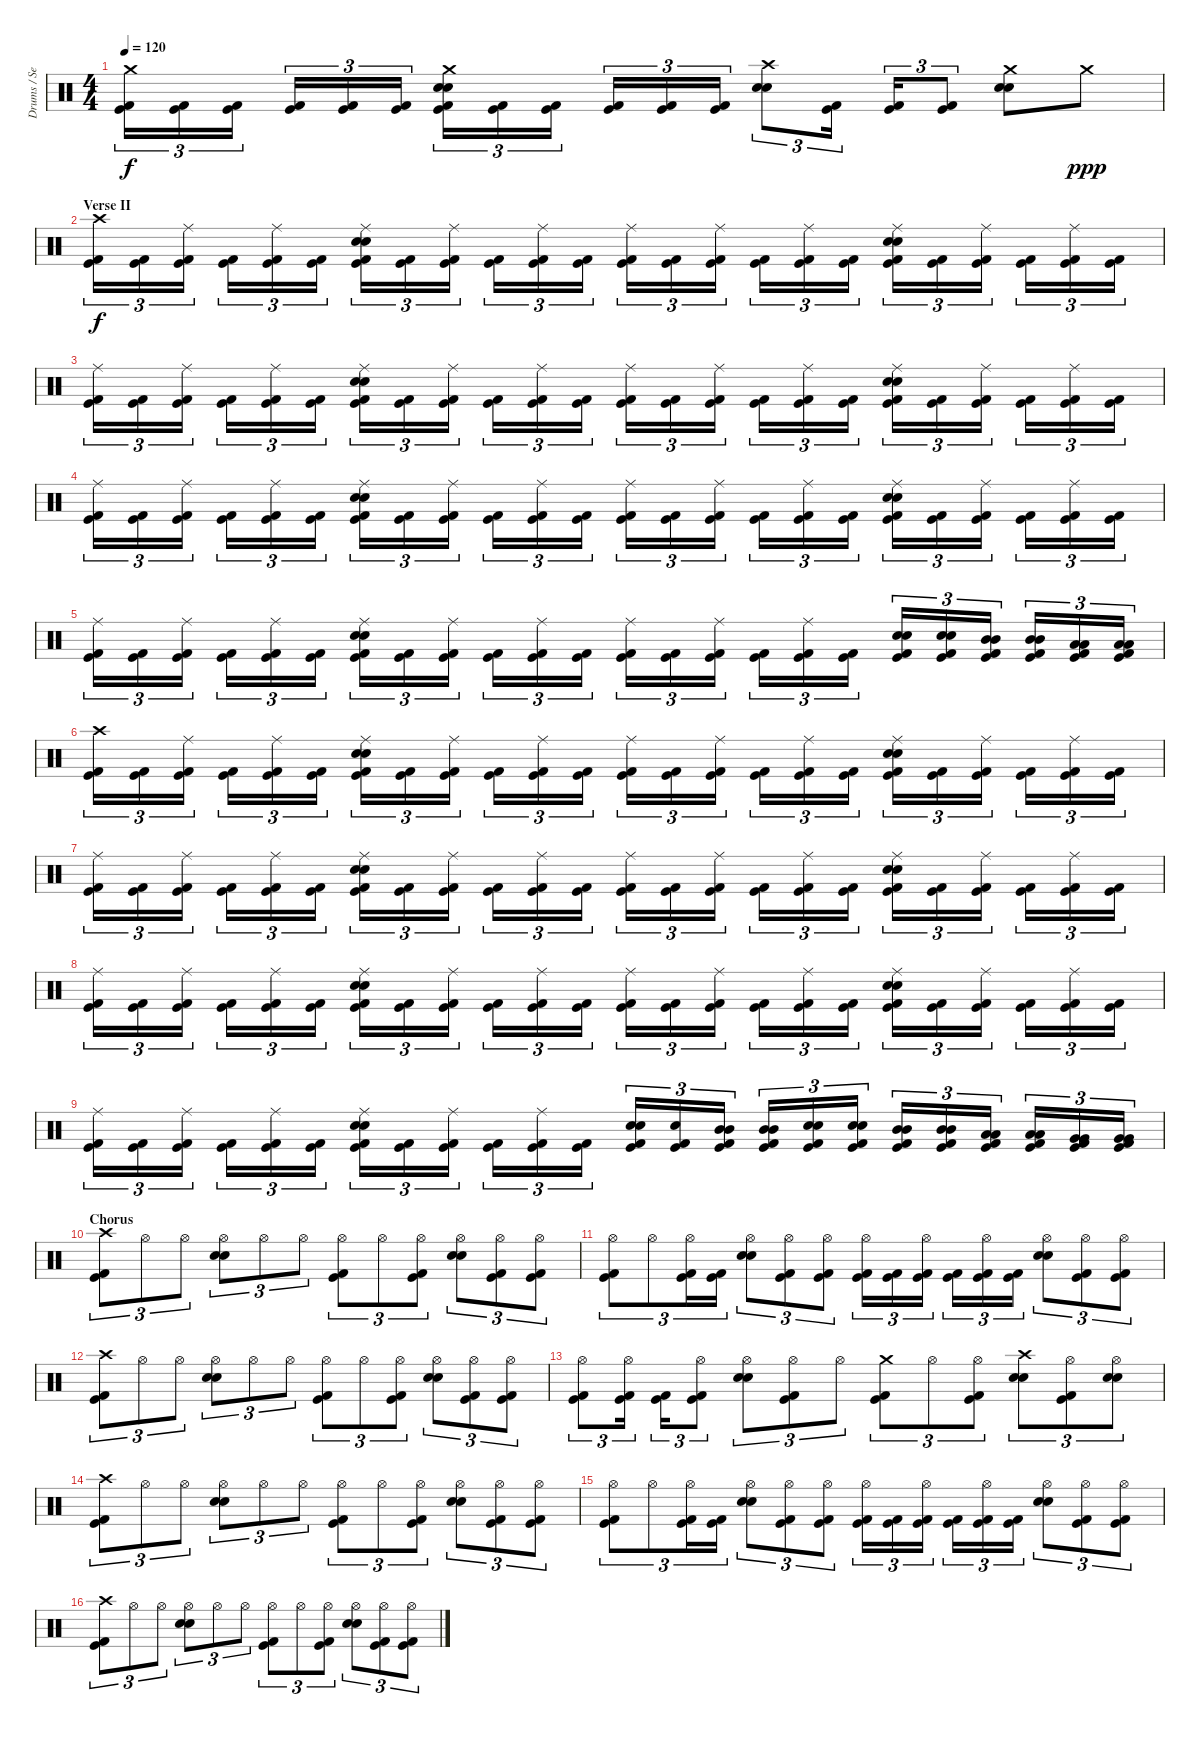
\track ("Drums / Sean" "Drums / Se") {instrument percussion}
\staff {score}
\articulation defaults
\ts (4 4)
\tempo 120
\clef neutral
\ks c
("Crash medium (hit)" "Kick (hit)" "Kick (hit) 2").16{tu (3 2) dy f} ("Kick (hit)" "Kick (hit) 2").16{tu (3 2)} ("Kick (hit)" "Kick (hit) 2").16{tu (3 2)} ("Kick (hit)" "Kick (hit) 2").16{tu (3 2)} ("Kick (hit)" "Kick (hit) 2").16{tu (3 2)} ("Kick (hit)" "Kick (hit) 2").16{tu (3 2)} ("Crash medium (hit)" "Electric Snare (hit)" "Snare (hit) 2" "Kick (hit)" "Kick (hit) 2").16{tu (3 2)} ("Kick (hit)" "Kick (hit) 2").16{tu (3 2)} ("Kick (hit)" "Kick (hit) 2").16{tu (3 2)} ("Kick (hit)" "Kick (hit) 2").16{tu (3 2)} ("Kick (hit)" "Kick (hit) 2").16{tu (3 2)} ("Kick (hit)" "Kick (hit) 2").16{tu (3 2)} ("Crash high (hit)" "Electric Snare (hit)" "Snare (hit) 2").8{tu (3 2)} ("Kick (hit)" "Kick (hit) 2").16{tu (3 2)} ("Kick (hit)" "Kick (hit) 2").16{tu (3 2)} ("Kick (hit)" "Kick (hit) 2").8{tu (3 2)} ("Crash medium (hit)" "Electric Snare (hit)" "Snare (hit) 2").8 "Crash medium (hit)".8{dy ppp} |
\section ("" "Verse II")
("Crash high (hit)" "Kick (hit)" "Kick (hit) 2").16{tu (3 2) dy f} ("Kick (hit)" "Kick (hit) 2").16{tu (3 2)} ("Ride (middle)" "Kick (hit)" "Kick (hit) 2").16{tu (3 2)} ("Kick (hit)" "Kick (hit) 2").16{tu (3 2)} ("Ride (middle)" "Kick (hit)" "Kick (hit) 2").16{tu (3 2)} ("Kick (hit)" "Kick (hit) 2").16{tu (3 2)} ("Ride (middle)" "Electric Snare (hit)" "Snare (hit) 2" "Kick (hit)" "Kick (hit) 2").16{tu (3 2)} ("Kick (hit)" "Kick (hit) 2").16{tu (3 2)} ("Ride (middle)" "Kick (hit)" "Kick (hit) 2").16{tu (3 2)} ("Kick (hit)" "Kick (hit) 2").16{tu (3 2)} ("Ride (middle)" "Kick (hit)" "Kick (hit) 2").16{tu (3 2)} ("Kick (hit)" "Kick (hit) 2").16{tu (3 2)} ("Ride (middle)" "Kick (hit)" "Kick (hit) 2").16{tu (3 2)} ("Kick (hit)" "Kick (hit) 2").16{tu (3 2)} ("Ride (middle)" "Kick (hit)" "Kick (hit) 2").16{tu (3 2)} ("Kick (hit)" "Kick (hit) 2").16{tu (3 2)} ("Ride (middle)" "Kick (hit)" "Kick (hit) 2").16{tu (3 2)} ("Kick (hit)" "Kick (hit) 2").16{tu (3 2)} ("Ride (middle)" "Electric Snare (hit)" "Snare (hit) 2" "Kick (hit)" "Kick (hit) 2").16{tu (3 2)} ("Kick (hit)" "Kick (hit) 2").16{tu (3 2)} ("Ride (middle)" "Kick (hit)" "Kick (hit) 2").16{tu (3 2)} ("Kick (hit)" "Kick (hit) 2").16{tu (3 2)} ("Ride (middle)" "Kick (hit)" "Kick (hit) 2").16{tu (3 2)} ("Kick (hit)" "Kick (hit) 2").16{tu (3 2)} |
("Ride (middle)" "Kick (hit)" "Kick (hit) 2").16{tu (3 2)} ("Kick (hit)" "Kick (hit) 2").16{tu (3 2)} ("Ride (middle)" "Kick (hit)" "Kick (hit) 2").16{tu (3 2)} ("Kick (hit)" "Kick (hit) 2").16{tu (3 2)} ("Ride (middle)" "Kick (hit)" "Kick (hit) 2").16{tu (3 2)} ("Kick (hit)" "Kick (hit) 2").16{tu (3 2)} ("Ride (middle)" "Electric Snare (hit)" "Snare (hit) 2" "Kick (hit)" "Kick (hit) 2").16{tu (3 2)} ("Kick (hit)" "Kick (hit) 2").16{tu (3 2)} ("Ride (middle)" "Kick (hit)" "Kick (hit) 2").16{tu (3 2)} ("Kick (hit)" "Kick (hit) 2").16{tu (3 2)} ("Ride (middle)" "Kick (hit)" "Kick (hit) 2").16{tu (3 2)} ("Kick (hit)" "Kick (hit) 2").16{tu (3 2)} ("Ride (middle)" "Kick (hit)" "Kick (hit) 2").16{tu (3 2)} ("Kick (hit)" "Kick (hit) 2").16{tu (3 2)} ("Ride (middle)" "Kick (hit)" "Kick (hit) 2").16{tu (3 2)} ("Kick (hit)" "Kick (hit) 2").16{tu (3 2)} ("Ride (middle)" "Kick (hit)" "Kick (hit) 2").16{tu (3 2)} ("Kick (hit)" "Kick (hit) 2").16{tu (3 2)} ("Ride (middle)" "Electric Snare (hit)" "Snare (hit) 2" "Kick (hit)" "Kick (hit) 2").16{tu (3 2)} ("Kick (hit)" "Kick (hit) 2").16{tu (3 2)} ("Ride (middle)" "Kick (hit)" "Kick (hit) 2").16{tu (3 2)} ("Kick (hit)" "Kick (hit) 2").16{tu (3 2)} ("Ride (middle)" "Kick (hit)" "Kick (hit) 2").16{tu (3 2)} ("Kick (hit)" "Kick (hit) 2").16{tu (3 2)} |
("Ride (middle)" "Kick (hit)" "Kick (hit) 2").16{tu (3 2)} ("Kick (hit)" "Kick (hit) 2").16{tu (3 2)} ("Ride (middle)" "Kick (hit)" "Kick (hit) 2").16{tu (3 2)} ("Kick (hit)" "Kick (hit) 2").16{tu (3 2)} ("Ride (middle)" "Kick (hit)" "Kick (hit) 2").16{tu (3 2)} ("Kick (hit)" "Kick (hit) 2").16{tu (3 2)} ("Ride (middle)" "Electric Snare (hit)" "Snare (hit) 2" "Kick (hit)" "Kick (hit) 2").16{tu (3 2)} ("Kick (hit)" "Kick (hit) 2").16{tu (3 2)} ("Ride (middle)" "Kick (hit)" "Kick (hit) 2").16{tu (3 2)} ("Kick (hit)" "Kick (hit) 2").16{tu (3 2)} ("Ride (middle)" "Kick (hit)" "Kick (hit) 2").16{tu (3 2)} ("Kick (hit)" "Kick (hit) 2").16{tu (3 2)} ("Ride (middle)" "Kick (hit)" "Kick (hit) 2").16{tu (3 2)} ("Kick (hit)" "Kick (hit) 2").16{tu (3 2)} ("Ride (middle)" "Kick (hit)" "Kick (hit) 2").16{tu (3 2)} ("Kick (hit)" "Kick (hit) 2").16{tu (3 2)} ("Ride (middle)" "Kick (hit)" "Kick (hit) 2").16{tu (3 2)} ("Kick (hit)" "Kick (hit) 2").16{tu (3 2)} ("Ride (middle)" "Electric Snare (hit)" "Snare (hit) 2" "Kick (hit)" "Kick (hit) 2").16{tu (3 2)} ("Kick (hit)" "Kick (hit) 2").16{tu (3 2)} ("Ride (middle)" "Kick (hit)" "Kick (hit) 2").16{tu (3 2)} ("Kick (hit)" "Kick (hit) 2").16{tu (3 2)} ("Ride (middle)" "Kick (hit)" "Kick (hit) 2").16{tu (3 2)} ("Kick (hit)" "Kick (hit) 2").16{tu (3 2)} |
("Ride (middle)" "Kick (hit)" "Kick (hit) 2").16{tu (3 2)} ("Kick (hit)" "Kick (hit) 2").16{tu (3 2)} ("Ride (middle)" "Kick (hit)" "Kick (hit) 2").16{tu (3 2)} ("Kick (hit)" "Kick (hit) 2").16{tu (3 2)} ("Ride (middle)" "Kick (hit)" "Kick (hit) 2").16{tu (3 2)} ("Kick (hit)" "Kick (hit) 2").16{tu (3 2)} ("Ride (middle)" "Electric Snare (hit)" "Snare (hit) 2" "Kick (hit)" "Kick (hit) 2").16{tu (3 2)} ("Kick (hit)" "Kick (hit) 2").16{tu (3 2)} ("Ride (middle)" "Kick (hit)" "Kick (hit) 2").16{tu (3 2)} ("Kick (hit)" "Kick (hit) 2").16{tu (3 2)} ("Ride (middle)" "Kick (hit)" "Kick (hit) 2").16{tu (3 2)} ("Kick (hit)" "Kick (hit) 2").16{tu (3 2)} ("Ride (middle)" "Kick (hit)" "Kick (hit) 2").16{tu (3 2)} ("Kick (hit)" "Kick (hit) 2").16{tu (3 2)} ("Ride (middle)" "Kick (hit)" "Kick (hit) 2").16{tu (3 2)} ("Kick (hit)" "Kick (hit) 2").16{tu (3 2)} ("Ride (middle)" "Kick (hit)" "Kick (hit) 2").16{tu (3 2)} ("Kick (hit)" "Kick (hit) 2").16{tu (3 2)} ("Electric Snare (hit)" "Snare (hit) 2" "Kick (hit)" "Kick (hit) 2").16{tu (3 2)} ("Electric Snare (hit)" "Snare (hit) 2" "Kick (hit)" "Kick (hit) 2").16{tu (3 2)} ("Mid Tom (hit)" "Mid Tom (hit)" "Kick (hit)" "Kick (hit) 2").16{tu (3 2)} ("Mid Tom (hit)" "Mid Tom (hit)" "Kick (hit)" "Kick (hit) 2").16{tu (3 2)} ("Low Tom (hit)" "Low Tom (hit)" "Kick (hit)" "Kick (hit) 2").16{tu (3 2)} ("Low Tom (hit)" "Low Tom (hit)" "Kick (hit)" "Kick (hit) 2").16{tu (3 2)} |
("Crash high (hit)" "Kick (hit)" "Kick (hit) 2").16{tu (3 2)} ("Kick (hit)" "Kick (hit) 2").16{tu (3 2)} ("Ride (middle)" "Kick (hit)" "Kick (hit) 2").16{tu (3 2)} ("Kick (hit)" "Kick (hit) 2").16{tu (3 2)} ("Ride (middle)" "Kick (hit)" "Kick (hit) 2").16{tu (3 2)} ("Kick (hit)" "Kick (hit) 2").16{tu (3 2)} ("Ride (middle)" "Electric Snare (hit)" "Snare (hit) 2" "Kick (hit)" "Kick (hit) 2").16{tu (3 2)} ("Kick (hit)" "Kick (hit) 2").16{tu (3 2)} ("Ride (middle)" "Kick (hit)" "Kick (hit) 2").16{tu (3 2)} ("Kick (hit)" "Kick (hit) 2").16{tu (3 2)} ("Ride (middle)" "Kick (hit)" "Kick (hit) 2").16{tu (3 2)} ("Kick (hit)" "Kick (hit) 2").16{tu (3 2)} ("Ride (middle)" "Kick (hit)" "Kick (hit) 2").16{tu (3 2)} ("Kick (hit)" "Kick (hit) 2").16{tu (3 2)} ("Ride (middle)" "Kick (hit)" "Kick (hit) 2").16{tu (3 2)} ("Kick (hit)" "Kick (hit) 2").16{tu (3 2)} ("Ride (middle)" "Kick (hit)" "Kick (hit) 2").16{tu (3 2)} ("Kick (hit)" "Kick (hit) 2").16{tu (3 2)} ("Ride (middle)" "Electric Snare (hit)" "Snare (hit) 2" "Kick (hit)" "Kick (hit) 2").16{tu (3 2)} ("Kick (hit)" "Kick (hit) 2").16{tu (3 2)} ("Ride (middle)" "Kick (hit)" "Kick (hit) 2").16{tu (3 2)} ("Kick (hit)" "Kick (hit) 2").16{tu (3 2)} ("Ride (middle)" "Kick (hit)" "Kick (hit) 2").16{tu (3 2)} ("Kick (hit)" "Kick (hit) 2").16{tu (3 2)} |
("Ride (middle)" "Kick (hit)" "Kick (hit) 2").16{tu (3 2)} ("Kick (hit)" "Kick (hit) 2").16{tu (3 2)} ("Ride (middle)" "Kick (hit)" "Kick (hit) 2").16{tu (3 2)} ("Kick (hit)" "Kick (hit) 2").16{tu (3 2)} ("Ride (middle)" "Kick (hit)" "Kick (hit) 2").16{tu (3 2)} ("Kick (hit)" "Kick (hit) 2").16{tu (3 2)} ("Ride (middle)" "Electric Snare (hit)" "Snare (hit) 2" "Kick (hit)" "Kick (hit) 2").16{tu (3 2)} ("Kick (hit)" "Kick (hit) 2").16{tu (3 2)} ("Ride (middle)" "Kick (hit)" "Kick (hit) 2").16{tu (3 2)} ("Kick (hit)" "Kick (hit) 2").16{tu (3 2)} ("Ride (middle)" "Kick (hit)" "Kick (hit) 2").16{tu (3 2)} ("Kick (hit)" "Kick (hit) 2").16{tu (3 2)} ("Ride (middle)" "Kick (hit)" "Kick (hit) 2").16{tu (3 2)} ("Kick (hit)" "Kick (hit) 2").16{tu (3 2)} ("Ride (middle)" "Kick (hit)" "Kick (hit) 2").16{tu (3 2)} ("Kick (hit)" "Kick (hit) 2").16{tu (3 2)} ("Ride (middle)" "Kick (hit)" "Kick (hit) 2").16{tu (3 2)} ("Kick (hit)" "Kick (hit) 2").16{tu (3 2)} ("Ride (middle)" "Electric Snare (hit)" "Snare (hit) 2" "Kick (hit)" "Kick (hit) 2").16{tu (3 2)} ("Kick (hit)" "Kick (hit) 2").16{tu (3 2)} ("Ride (middle)" "Kick (hit)" "Kick (hit) 2").16{tu (3 2)} ("Kick (hit)" "Kick (hit) 2").16{tu (3 2)} ("Ride (middle)" "Kick (hit)" "Kick (hit) 2").16{tu (3 2)} ("Kick (hit)" "Kick (hit) 2").16{tu (3 2)} |
("Ride (middle)" "Kick (hit)" "Kick (hit) 2").16{tu (3 2)} ("Kick (hit)" "Kick (hit) 2").16{tu (3 2)} ("Ride (middle)" "Kick (hit)" "Kick (hit) 2").16{tu (3 2)} ("Kick (hit)" "Kick (hit) 2").16{tu (3 2)} ("Ride (middle)" "Kick (hit)" "Kick (hit) 2").16{tu (3 2)} ("Kick (hit)" "Kick (hit) 2").16{tu (3 2)} ("Ride (middle)" "Electric Snare (hit)" "Snare (hit) 2" "Kick (hit)" "Kick (hit) 2").16{tu (3 2)} ("Kick (hit)" "Kick (hit) 2").16{tu (3 2)} ("Ride (middle)" "Kick (hit)" "Kick (hit) 2").16{tu (3 2)} ("Kick (hit)" "Kick (hit) 2").16{tu (3 2)} ("Ride (middle)" "Kick (hit)" "Kick (hit) 2").16{tu (3 2)} ("Kick (hit)" "Kick (hit) 2").16{tu (3 2)} ("Ride (middle)" "Kick (hit)" "Kick (hit) 2").16{tu (3 2)} ("Kick (hit)" "Kick (hit) 2").16{tu (3 2)} ("Ride (middle)" "Kick (hit)" "Kick (hit) 2").16{tu (3 2)} ("Kick (hit)" "Kick (hit) 2").16{tu (3 2)} ("Ride (middle)" "Kick (hit)" "Kick (hit) 2").16{tu (3 2)} ("Kick (hit)" "Kick (hit) 2").16{tu (3 2)} ("Ride (middle)" "Electric Snare (hit)" "Snare (hit) 2" "Kick (hit)" "Kick (hit) 2").16{tu (3 2)} ("Kick (hit)" "Kick (hit) 2").16{tu (3 2)} ("Ride (middle)" "Kick (hit)" "Kick (hit) 2").16{tu (3 2)} ("Kick (hit)" "Kick (hit) 2").16{tu (3 2)} ("Ride (middle)" "Kick (hit)" "Kick (hit) 2").16{tu (3 2)} ("Kick (hit)" "Kick (hit) 2").16{tu (3 2)} |
("Ride (middle)" "Kick (hit)" "Kick (hit) 2").16{tu (3 2)} ("Kick (hit)" "Kick (hit) 2").16{tu (3 2)} ("Ride (middle)" "Kick (hit)" "Kick (hit) 2").16{tu (3 2)} ("Kick (hit)" "Kick (hit) 2").16{tu (3 2)} ("Ride (middle)" "Kick (hit)" "Kick (hit) 2").16{tu (3 2)} ("Kick (hit)" "Kick (hit) 2").16{tu (3 2)} ("Ride (middle)" "Electric Snare (hit)" "Snare (hit) 2" "Kick (hit)" "Kick (hit) 2").16{tu (3 2)} ("Kick (hit)" "Kick (hit) 2").16{tu (3 2)} ("Ride (middle)" "Kick (hit)" "Kick (hit) 2").16{tu (3 2)} ("Kick (hit)" "Kick (hit) 2").16{tu (3 2)} ("Ride (middle)" "Kick (hit)" "Kick (hit) 2").16{tu (3 2)} ("Kick (hit)" "Kick (hit) 2").16{tu (3 2)} ("Electric Snare (hit)" "Snare (hit) 2" "Kick (hit)" "Kick (hit) 2").16{tu (3 2)} ("Electric Snare (hit)" "Kick (hit)" "Kick (hit) 2").16{tu (3 2)} ("Mid Tom (hit)" "Mid Tom (hit)" "Kick (hit)" "Kick (hit) 2").16{tu (3 2)} ("Mid Tom (hit)" "Mid Tom (hit)" "Kick (hit)" "Kick (hit) 2").16{tu (3 2)} ("Electric Snare (hit)" "Snare (hit) 2" "Kick (hit)" "Kick (hit) 2").16{tu (3 2)} ("Electric Snare (hit)" "Snare (hit) 2" "Kick (hit)" "Kick (hit) 2").16{tu (3 2)} ("Mid Tom (hit)" "Mid Tom (hit)" "Kick (hit)" "Kick (hit) 2").16{tu (3 2)} ("Mid Tom (hit)" "Mid Tom (hit)" "Kick (hit)" "Kick (hit) 2").16{tu (3 2)} ("Low Tom (hit)" "Low Tom (hit)" "Kick (hit)" "Kick (hit) 2").16{tu (3 2)} ("Low Tom (hit)" "Low Tom (hit)" "Kick (hit)" "Kick (hit) 2").16{tu (3 2)} ("Very Low Tom (hit)" "Very Low Tom (hit)" "Kick (hit)" "Kick (hit) 2").16{tu (3 2)} ("Very Low Tom (hit)" "Very Low Tom (hit)" "Kick (hit)" "Kick (hit) 2").16{tu (3 2)} |
\section ("" "Chorus")
("Crash high (hit)" "Kick (hit)" "Kick (hit) 2").8{tu (3 2)} "Hi-Hat (open)".8{tu (3 2)} "Hi-Hat (open)".8{tu (3 2)} ("Hi-Hat (open)" "Electric Snare (hit)" "Snare (hit) 2").8{tu (3 2)} "Hi-Hat (open)".8{tu (3 2)} "Hi-Hat (open)".8{tu (3 2)} ("Hi-Hat (open)" "Kick (hit)" "Kick (hit) 2").8{tu (3 2)} "Hi-Hat (open)".8{tu (3 2)} ("Hi-Hat (open)" "Kick (hit)" "Kick (hit) 2").8{tu (3 2)} ("Hi-Hat (open)" "Electric Snare (hit)" "Snare (hit) 2").8{tu (3 2)} ("Hi-Hat (open)" "Kick (hit)" "Kick (hit) 2").8{tu (3 2)} ("Hi-Hat (open)" "Kick (hit)" "Kick (hit) 2").8{tu (3 2)} |
("Hi-Hat (open)" "Kick (hit)" "Kick (hit) 2").8{tu (3 2)} "Hi-Hat (open)".8{tu (3 2)} ("Hi-Hat (open)" "Kick (hit)" "Kick (hit) 2").16{tu (3 2)} ("Kick (hit)" "Kick (hit) 2").16{tu (3 2)} ("Hi-Hat (open)" "Electric Snare (hit)" "Snare (hit) 2").8{tu (3 2)} ("Hi-Hat (open)" "Kick (hit)" "Kick (hit) 2").8{tu (3 2)} ("Hi-Hat (open)" "Kick (hit)" "Kick (hit) 2").8{tu (3 2)} ("Hi-Hat (open)" "Kick (hit)" "Kick (hit) 2").16{tu (3 2)} ("Kick (hit)" "Kick (hit) 2").16{tu (3 2)} ("Hi-Hat (open)" "Kick (hit)" "Kick (hit) 2").16{tu (3 2)} ("Kick (hit)" "Kick (hit) 2").16{tu (3 2)} ("Hi-Hat (open)" "Kick (hit)" "Kick (hit) 2").16{tu (3 2)} ("Kick (hit)" "Kick (hit) 2").16{tu (3 2)} ("Hi-Hat (open)" "Electric Snare (hit)" "Snare (hit) 2").8{tu (3 2)} ("Hi-Hat (open)" "Kick (hit)" "Kick (hit) 2").8{tu (3 2)} ("Hi-Hat (open)" "Kick (hit)" "Kick (hit) 2").8{tu (3 2)} |
("Crash high (hit)" "Kick (hit)" "Kick (hit) 2").8{tu (3 2)} "Hi-Hat (open)".8{tu (3 2)} "Hi-Hat (open)".8{tu (3 2)} ("Hi-Hat (open)" "Electric Snare (hit)" "Snare (hit) 2").8{tu (3 2)} "Hi-Hat (open)".8{tu (3 2)} "Hi-Hat (open)".8{tu (3 2)} ("Hi-Hat (open)" "Kick (hit)" "Kick (hit) 2").8{tu (3 2)} "Hi-Hat (open)".8{tu (3 2)} ("Hi-Hat (open)" "Kick (hit)" "Kick (hit) 2").8{tu (3 2)} ("Hi-Hat (open)" "Electric Snare (hit)" "Snare (hit) 2").8{tu (3 2)} ("Hi-Hat (open)" "Kick (hit)" "Kick (hit) 2").8{tu (3 2)} ("Hi-Hat (open)" "Kick (hit)" "Kick (hit) 2").8{tu (3 2)} |
("Hi-Hat (open)" "Kick (hit)" "Kick (hit) 2").8{tu (3 2)} ("Hi-Hat (open)" "Kick (hit)" "Kick (hit) 2").16{tu (3 2)} ("Kick (hit)" "Kick (hit) 2").16{tu (3 2)} ("Hi-Hat (open)" "Kick (hit)" "Kick (hit) 2").8{tu (3 2)} ("Hi-Hat (open)" "Electric Snare (hit)" "Snare (hit) 2").8{tu (3 2)} ("Hi-Hat (open)" "Kick (hit)" "Kick (hit) 2").8{tu (3 2)} "Hi-Hat (open)".8{tu (3 2)} ("Crash medium (hit)" "Kick (hit)" "Kick (hit) 2").8{tu (3 2)} "Hi-Hat (open)".8{tu (3 2)} ("Hi-Hat (open)" "Kick (hit)" "Kick (hit) 2").8{tu (3 2)} ("Crash high (hit)" "Electric Snare (hit)" "Snare (hit) 2").8{tu (3 2)} ("Hi-Hat (open)" "Kick (hit)" "Kick (hit) 2").8{tu (3 2)} ("Hi-Hat (open)" "Electric Snare (hit)" "Snare (hit) 2").8{tu (3 2)} |
("Crash high (hit)" "Kick (hit)" "Kick (hit) 2").8{tu (3 2)} "Hi-Hat (open)".8{tu (3 2)} "Hi-Hat (open)".8{tu (3 2)} ("Hi-Hat (open)" "Electric Snare (hit)" "Snare (hit) 2").8{tu (3 2)} "Hi-Hat (open)".8{tu (3 2)} "Hi-Hat (open)".8{tu (3 2)} ("Hi-Hat (open)" "Kick (hit)" "Kick (hit) 2").8{tu (3 2)} "Hi-Hat (open)".8{tu (3 2)} ("Hi-Hat (open)" "Kick (hit)" "Kick (hit) 2").8{tu (3 2)} ("Hi-Hat (open)" "Electric Snare (hit)" "Snare (hit) 2").8{tu (3 2)} ("Hi-Hat (open)" "Kick (hit)" "Kick (hit) 2").8{tu (3 2)} ("Hi-Hat (open)" "Kick (hit)" "Kick (hit) 2").8{tu (3 2)} |
("Hi-Hat (open)" "Kick (hit)" "Kick (hit) 2").8{tu (3 2)} "Hi-Hat (open)".8{tu (3 2)} ("Hi-Hat (open)" "Kick (hit)" "Kick (hit) 2").16{tu (3 2)} ("Kick (hit)" "Kick (hit) 2").16{tu (3 2)} ("Hi-Hat (open)" "Electric Snare (hit)" "Snare (hit) 2").8{tu (3 2)} ("Hi-Hat (open)" "Kick (hit)" "Kick (hit) 2").8{tu (3 2)} ("Hi-Hat (open)" "Kick (hit)" "Kick (hit) 2").8{tu (3 2)} ("Hi-Hat (open)" "Kick (hit)" "Kick (hit) 2").16{tu (3 2)} ("Kick (hit)" "Kick (hit) 2").16{tu (3 2)} ("Hi-Hat (open)" "Kick (hit)" "Kick (hit) 2").16{tu (3 2)} ("Kick (hit)" "Kick (hit) 2").16{tu (3 2)} ("Hi-Hat (open)" "Kick (hit)" "Kick (hit) 2").16{tu (3 2)} ("Kick (hit)" "Kick (hit) 2").16{tu (3 2)} ("Hi-Hat (open)" "Electric Snare (hit)" "Snare (hit) 2").8{tu (3 2)} ("Hi-Hat (open)" "Kick (hit)" "Kick (hit) 2").8{tu (3 2)} ("Hi-Hat (open)" "Kick (hit)" "Kick (hit) 2").8{tu (3 2)} |
("Crash high (hit)" "Kick (hit)" "Kick (hit) 2").8{tu (3 2)} "Hi-Hat (open)".8{tu (3 2)} "Hi-Hat (open)".8{tu (3 2)} ("Hi-Hat (open)" "Electric Snare (hit)" "Snare (hit) 2").8{tu (3 2)} "Hi-Hat (open)".8{tu (3 2)} "Hi-Hat (open)".8{tu (3 2)} ("Hi-Hat (open)" "Kick (hit)" "Kick (hit) 2").8{tu (3 2)} "Hi-Hat (open)".8{tu (3 2)} ("Hi-Hat (open)" "Kick (hit)" "Kick (hit) 2").8{tu (3 2)} ("Hi-Hat (open)" "Electric Snare (hit)" "Snare (hit) 2").8{tu (3 2)} ("Hi-Hat (open)" "Kick (hit)" "Kick (hit) 2").8{tu (3 2)} ("Hi-Hat (open)" "Kick (hit)" "Kick (hit) 2").8{tu (3 2)}
